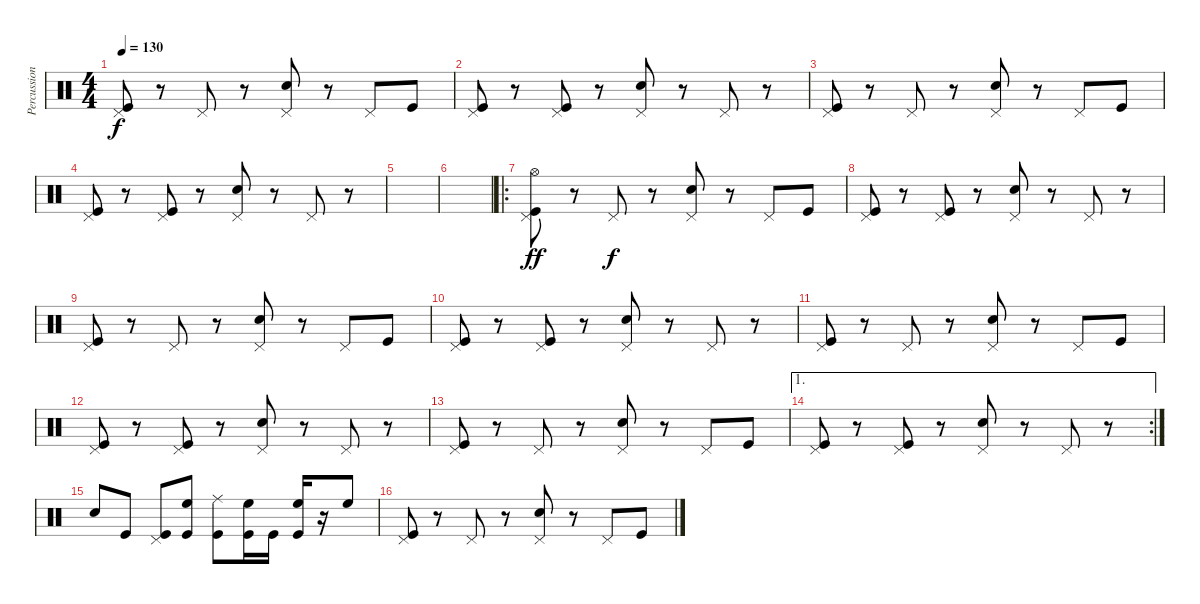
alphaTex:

\track ("Percussioni" "Percussion") {instrument percussion}
\staff {score}
\articulation defaults
\ts (4 4)
\tempo 130
\clef neutral
\ks c
("Kick (hit)" "Pedal Hi-Hat (hit)").8{dy f} r.8 "Pedal Hi-Hat (hit)".8 r.8 ("Snare (hit) 2" "Pedal Hi-Hat (hit)").8 r.8 "Pedal Hi-Hat (hit)".8 "Kick (hit)".8 |
("Pedal Hi-Hat (hit)" "Kick (hit)").8 r.8 ("Kick (hit)" "Pedal Hi-Hat (hit)").8 r.8 ("Snare (hit) 2" "Pedal Hi-Hat (hit)").8 r.8 "Pedal Hi-Hat (hit)".8 r.8 |
("Kick (hit)" "Pedal Hi-Hat (hit)").8 r.8 "Pedal Hi-Hat (hit)".8 r.8 ("Snare (hit) 2" "Pedal Hi-Hat (hit)").8 r.8 "Pedal Hi-Hat (hit)".8 "Kick (hit)".8 |
("Pedal Hi-Hat (hit)" "Kick (hit)").8 r.8 ("Kick (hit)" "Pedal Hi-Hat (hit)").8 r.8 ("Snare (hit) 2" "Pedal Hi-Hat (hit)").8 r.8 "Pedal Hi-Hat (hit)".8 r.8 |
|
|
\ro
("Kick (hit)" "Pedal Hi-Hat (hit)" "Hi-Hat (open)").8{dy ff} r.8 "Pedal Hi-Hat (hit)".8{dy f} r.8 ("Snare (hit) 2" "Pedal Hi-Hat (hit)").8 r.8 "Pedal Hi-Hat (hit)".8 "Kick (hit)".8 |
("Pedal Hi-Hat (hit)" "Kick (hit)").8 r.8 ("Kick (hit)" "Pedal Hi-Hat (hit)").8 r.8 ("Snare (hit) 2" "Pedal Hi-Hat (hit)").8 r.8 "Pedal Hi-Hat (hit)".8 r.8 |
("Kick (hit)" "Pedal Hi-Hat (hit)").8 r.8 "Pedal Hi-Hat (hit)".8 r.8 ("Snare (hit) 2" "Pedal Hi-Hat (hit)").8 r.8 "Pedal Hi-Hat (hit)".8 "Kick (hit)".8 |
("Pedal Hi-Hat (hit)" "Kick (hit)").8 r.8 ("Kick (hit)" "Pedal Hi-Hat (hit)").8 r.8 ("Snare (hit) 2" "Pedal Hi-Hat (hit)").8 r.8 "Pedal Hi-Hat (hit)".8 r.8 |
("Kick (hit)" "Pedal Hi-Hat (hit)").8 r.8 "Pedal Hi-Hat (hit)".8 r.8 ("Snare (hit) 2" "Pedal Hi-Hat (hit)").8 r.8 "Pedal Hi-Hat (hit)".8 "Kick (hit)".8 |
("Pedal Hi-Hat (hit)" "Kick (hit)").8 r.8 ("Kick (hit)" "Pedal Hi-Hat (hit)").8 r.8 ("Snare (hit) 2" "Pedal Hi-Hat (hit)").8 r.8 "Pedal Hi-Hat (hit)".8 r.8 |
("Kick (hit)" "Pedal Hi-Hat (hit)").8 r.8 "Pedal Hi-Hat (hit)".8 r.8 ("Snare (hit) 2" "Pedal Hi-Hat (hit)").8 r.8 "Pedal Hi-Hat (hit)".8 "Kick (hit)".8 |
\ae 1
\rc 2
("Pedal Hi-Hat (hit)" "Kick (hit)").8 r.8 ("Kick (hit)" "Pedal Hi-Hat (hit)").8 r.8 ("Snare (hit) 2" "Pedal Hi-Hat (hit)").8 r.8 "Pedal Hi-Hat (hit)".8 r.8 |
"Snare (hit) 2".8 "Kick (hit)".8 ("Kick (hit)" "Pedal Hi-Hat (hit)").8 ("Kick (hit)" "High Floor Tom (hit)").8 ("Kick (hit)" "Ride (middle)").8 ("Kick (hit)" "High Floor Tom (hit)").16 "Kick (hit)".16 ("Kick (hit)" "High Floor Tom (hit)").16 r.16 "High Floor Tom (hit)".8 |
("Kick (hit)" "Pedal Hi-Hat (hit)").8 r.8 "Pedal Hi-Hat (hit)".8 r.8 ("Snare (hit) 2" "Pedal Hi-Hat (hit)").8 r.8 "Pedal Hi-Hat (hit)".8 "Kick (hit)".8
